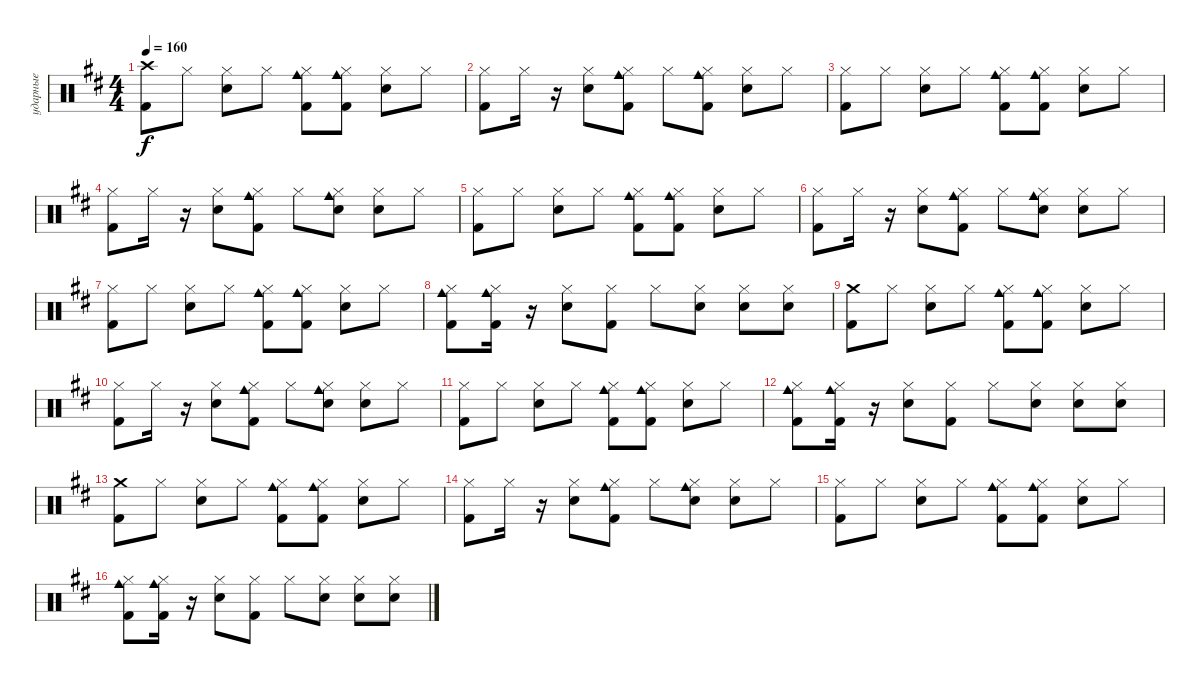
\track ("ударные" "ударные") {instrument percussion}
\staff {score}
\articulation defaults
\ts (4 4)
\tempo 160
\clef neutral
\ks bminor
("Crash high (hit)" "Kick (hit) 2").8{dy f} "Hi-Hat (closed)".8 ("Hi-Hat (closed)" "Snare (hit) 2").8 "Hi-Hat (closed)".8 ("Hi-Hat (closed)" "Cowbell medium (hit)" "Kick (hit) 2").8 ("Hi-Hat (closed)" "Cowbell medium (hit)" "Kick (hit) 2").8 ("Hi-Hat (closed)" "Snare (hit) 2").8 "Hi-Hat (closed)".8 |
("Hi-Hat (closed)" "Kick (hit) 2").8 "Hi-Hat (closed)".16 r.16 ("Hi-Hat (closed)" "Snare (hit) 2").8 ("Hi-Hat (closed)" "Kick (hit) 2" "Cowbell medium (hit)").8 "Hi-Hat (closed)".8 ("Hi-Hat (closed)" "Kick (hit) 2" "Cowbell medium (hit)").8 ("Hi-Hat (closed)" "Snare (hit) 2").8 "Hi-Hat (closed)".8 |
("Hi-Hat (closed)" "Kick (hit) 2").8 "Hi-Hat (closed)".8 ("Hi-Hat (closed)" "Snare (hit) 2").8 "Hi-Hat (closed)".8 ("Hi-Hat (closed)" "Cowbell medium (hit)" "Kick (hit) 2").8 ("Hi-Hat (closed)" "Cowbell medium (hit)" "Kick (hit) 2").8 ("Hi-Hat (closed)" "Snare (hit) 2").8 "Hi-Hat (closed)".8 |
("Hi-Hat (closed)" "Kick (hit) 2").8 "Hi-Hat (closed)".16 r.16 ("Hi-Hat (closed)" "Snare (hit) 2").8 ("Hi-Hat (closed)" "Kick (hit) 2" "Cowbell medium (hit)").8 "Hi-Hat (closed)".8 ("Hi-Hat (closed)" "Hand Clap (hit)" "Cowbell medium (hit)").8 ("Hi-Hat (closed)" "Snare (hit) 2").8 "Hi-Hat (closed)".8 |
("Hi-Hat (closed)" "Kick (hit) 2").8 "Hi-Hat (closed)".8 ("Hi-Hat (closed)" "Snare (hit) 2").8 "Hi-Hat (closed)".8 ("Hi-Hat (closed)" "Cowbell medium (hit)" "Kick (hit) 2").8 ("Hi-Hat (closed)" "Cowbell medium (hit)" "Kick (hit) 2").8 ("Hi-Hat (closed)" "Snare (hit) 2").8 "Hi-Hat (closed)".8 |
("Hi-Hat (closed)" "Kick (hit) 2").8 "Hi-Hat (closed)".16 r.16 ("Hi-Hat (closed)" "Snare (hit) 2").8 ("Hi-Hat (closed)" "Kick (hit) 2" "Cowbell medium (hit)").8 "Hi-Hat (closed)".8 ("Hi-Hat (closed)" "Hand Clap (hit)" "Cowbell medium (hit)").8 ("Hi-Hat (closed)" "Snare (hit) 2").8 "Hi-Hat (closed)".8 |
("Hi-Hat (closed)" "Kick (hit) 2").8 "Hi-Hat (closed)".8 ("Hi-Hat (closed)" "Snare (hit) 2").8 "Hi-Hat (closed)".8 ("Hi-Hat (closed)" "Cowbell medium (hit)" "Kick (hit) 2").8 ("Hi-Hat (closed)" "Cowbell medium (hit)" "Kick (hit) 2").8 ("Hi-Hat (closed)" "Snare (hit) 2").8 "Hi-Hat (closed)".8 |
("Cowbell medium (hit)" "Hi-Hat (closed)" "Kick (hit) 2").8 ("Cowbell medium (hit)" "Kick (hit) 2" "Hi-Hat (closed)").16 r.16 ("Hi-Hat (closed)" "Snare (hit) 2").8 ("Hi-Hat (closed)" "Kick (hit) 2").8 "Hi-Hat (closed)".8 ("Hi-Hat (closed)" "Snare (hit) 2").8 ("Hi-Hat (closed)" "Snare (hit) 2").8 ("Snare (hit) 2" "Hi-Hat (closed)").8 |
("Crash medium (hit)" "Kick (hit) 2").8 "Hi-Hat (closed)".8 ("Hi-Hat (closed)" "Snare (hit) 2").8 "Hi-Hat (closed)".8 ("Hi-Hat (closed)" "Cowbell medium (hit)" "Kick (hit) 2").8 ("Hi-Hat (closed)" "Cowbell medium (hit)" "Kick (hit) 2").8 ("Hi-Hat (closed)" "Snare (hit) 2").8 "Hi-Hat (closed)".8 |
("Hi-Hat (closed)" "Kick (hit) 2").8 "Hi-Hat (closed)".16 r.16 ("Hi-Hat (closed)" "Snare (hit) 2").8 ("Hi-Hat (closed)" "Kick (hit) 2" "Cowbell medium (hit)").8 "Hi-Hat (closed)".8 ("Hi-Hat (closed)" "Hand Clap (hit)" "Cowbell medium (hit)").8 ("Hi-Hat (closed)" "Snare (hit) 2").8 "Hi-Hat (closed)".8 |
("Hi-Hat (closed)" "Kick (hit) 2").8 "Hi-Hat (closed)".8 ("Hi-Hat (closed)" "Snare (hit) 2").8 "Hi-Hat (closed)".8 ("Hi-Hat (closed)" "Cowbell medium (hit)" "Kick (hit) 2").8 ("Hi-Hat (closed)" "Cowbell medium (hit)" "Kick (hit) 2").8 ("Hi-Hat (closed)" "Snare (hit) 2").8 "Hi-Hat (closed)".8 |
("Cowbell medium (hit)" "Hi-Hat (closed)" "Kick (hit) 2").8 ("Cowbell medium (hit)" "Kick (hit) 2" "Hi-Hat (closed)").16 r.16 ("Hi-Hat (closed)" "Snare (hit) 2").8 ("Hi-Hat (closed)" "Kick (hit) 2").8 "Hi-Hat (closed)".8 ("Hi-Hat (closed)" "Snare (hit) 2").8 ("Hi-Hat (closed)" "Snare (hit) 2").8 ("Snare (hit) 2" "Hi-Hat (closed)").8 |
("Crash medium (hit)" "Kick (hit) 2").8 "Hi-Hat (closed)".8 ("Hi-Hat (closed)" "Snare (hit) 2").8 "Hi-Hat (closed)".8 ("Hi-Hat (closed)" "Cowbell medium (hit)" "Kick (hit) 2").8 ("Hi-Hat (closed)" "Cowbell medium (hit)" "Kick (hit) 2").8 ("Hi-Hat (closed)" "Snare (hit) 2").8 "Hi-Hat (closed)".8 |
("Hi-Hat (closed)" "Kick (hit) 2").8 "Hi-Hat (closed)".16 r.16 ("Hi-Hat (closed)" "Snare (hit) 2").8 ("Hi-Hat (closed)" "Kick (hit) 2" "Cowbell medium (hit)").8 "Hi-Hat (closed)".8 ("Hi-Hat (closed)" "Hand Clap (hit)" "Cowbell medium (hit)").8 ("Hi-Hat (closed)" "Snare (hit) 2").8 "Hi-Hat (closed)".8 |
("Hi-Hat (closed)" "Kick (hit) 2").8 "Hi-Hat (closed)".8 ("Hi-Hat (closed)" "Snare (hit) 2").8 "Hi-Hat (closed)".8 ("Hi-Hat (closed)" "Cowbell medium (hit)" "Kick (hit) 2").8 ("Hi-Hat (closed)" "Cowbell medium (hit)" "Kick (hit) 2").8 ("Hi-Hat (closed)" "Snare (hit) 2").8 "Hi-Hat (closed)".8 |
("Cowbell medium (hit)" "Hi-Hat (closed)" "Kick (hit) 2").8 ("Cowbell medium (hit)" "Kick (hit) 2" "Hi-Hat (closed)").16 r.16 ("Hi-Hat (closed)" "Snare (hit) 2").8 ("Hi-Hat (closed)" "Kick (hit) 2").8 "Hi-Hat (closed)".8 ("Hi-Hat (closed)" "Snare (hit) 2").8 ("Hi-Hat (closed)" "Snare (hit) 2").8 ("Snare (hit) 2" "Hi-Hat (closed)").8
